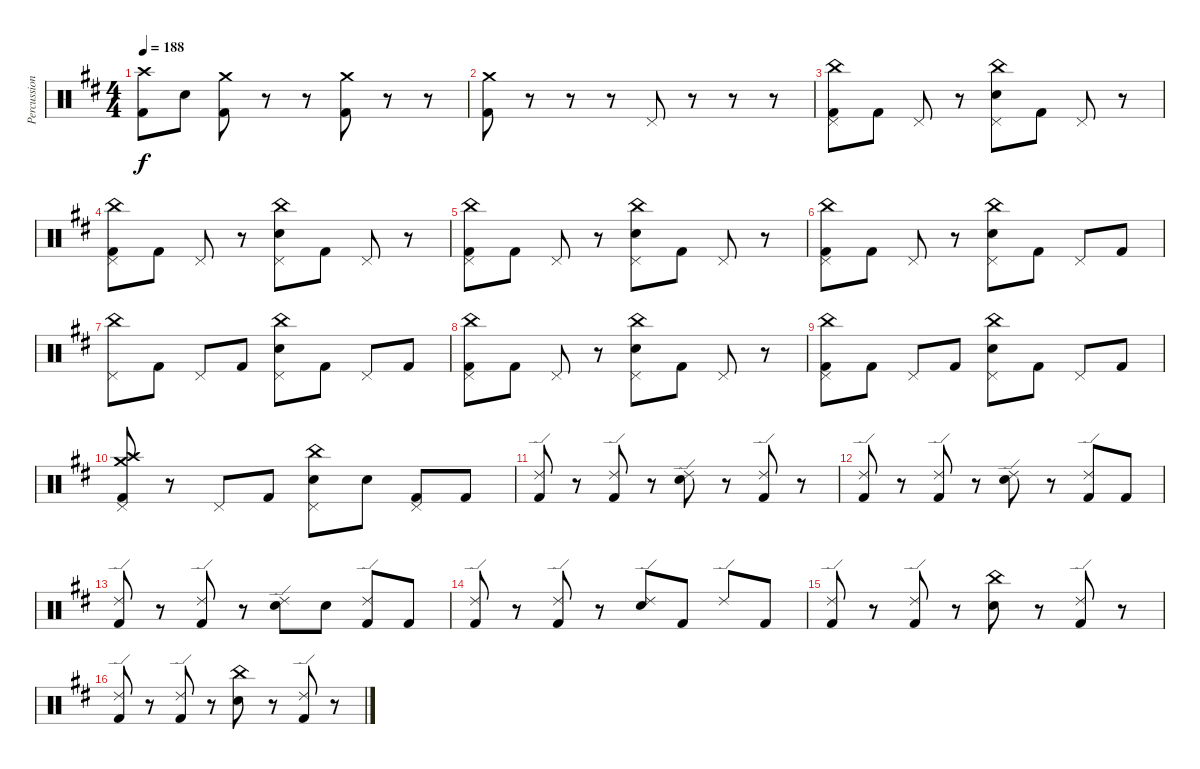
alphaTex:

\track ("Percussion" "Percussion") {instrument percussion}
\staff {score}
\articulation defaults
\ts (4 4)
\tempo 188
\clef neutral
\ks bminor
("Kick (hit) 2" "Crash high (hit)").8{dy f} "Electric Snare (hit)".8 ("Kick (hit) 2" "Crash medium (hit)").8 r.8 r.8 ("Kick (hit) 2" "Crash medium (hit)").8{volume 16} r.8{volume 0} r.8 |
("Kick (hit) 2" "Crash medium (hit)").8{volume 16} r.8{volume 0} r.8{volume 16} r.8 "Pedal Hi-Hat (hit)".8 r.8 r.8 r.8 |
("Kick (hit) 2" "China (hit)" "Pedal Hi-Hat (hit)").8{volume 16} "Kick (hit) 2".8 "Pedal Hi-Hat (hit)".8 r.8 ("China (hit)" "Electric Snare (hit)" "Pedal Hi-Hat (hit)").8 "Kick (hit) 2".8 "Pedal Hi-Hat (hit)".8 r.8 |
("Kick (hit) 2" "China (hit)" "Pedal Hi-Hat (hit)").8 "Kick (hit) 2".8 "Pedal Hi-Hat (hit)".8 r.8 ("China (hit)" "Electric Snare (hit)" "Pedal Hi-Hat (hit)").8 "Kick (hit) 2".8 "Pedal Hi-Hat (hit)".8 r.8 |
("Kick (hit) 2" "China (hit)" "Pedal Hi-Hat (hit)").8 "Kick (hit) 2".8 "Pedal Hi-Hat (hit)".8 r.8 ("China (hit)" "Electric Snare (hit)" "Pedal Hi-Hat (hit)").8 "Kick (hit) 2".8 "Pedal Hi-Hat (hit)".8 r.8 |
("Kick (hit) 2" "China (hit)" "Pedal Hi-Hat (hit)").8 "Kick (hit) 2".8 "Pedal Hi-Hat (hit)".8 r.8 ("China (hit)" "Electric Snare (hit)" "Pedal Hi-Hat (hit)").8 "Kick (hit) 2".8 "Pedal Hi-Hat (hit)".8 "Kick (hit) 2".8 |
("China (hit)" "Pedal Hi-Hat (hit)").8 "Kick (hit) 2".8 "Pedal Hi-Hat (hit)".8 "Kick (hit) 2".8 ("China (hit)" "Electric Snare (hit)" "Pedal Hi-Hat (hit)").8 "Kick (hit) 2".8 "Pedal Hi-Hat (hit)".8 "Kick (hit) 2".8 |
("Kick (hit) 2" "China (hit)" "Pedal Hi-Hat (hit)").8 "Kick (hit) 2".8 "Pedal Hi-Hat (hit)".8 r.8 ("China (hit)" "Electric Snare (hit)" "Pedal Hi-Hat (hit)").8 "Kick (hit) 2".8 "Pedal Hi-Hat (hit)".8 r.8 |
("Kick (hit) 2" "China (hit)" "Pedal Hi-Hat (hit)").8 "Kick (hit) 2".8 "Pedal Hi-Hat (hit)".8 "Kick (hit) 2".8 ("China (hit)" "Electric Snare (hit)" "Pedal Hi-Hat (hit)").8 "Kick (hit) 2".8 "Pedal Hi-Hat (hit)".8 "Kick (hit) 2".8 |
("Kick (hit) 2" "Crash medium (hit)" "Pedal Hi-Hat (hit)" "Crash high (hit)").8{volume 16} r.8 "Pedal Hi-Hat (hit)".8 "Kick (hit) 2".8 ("Electric Snare (hit)" "China (hit)" "Pedal Hi-Hat (hit)").8 "Electric Snare (hit)".8 ("Pedal Hi-Hat (hit)" "Kick (hit) 2").8 "Kick (hit) 2".8 |
("Kick (hit) 2" "Ride (edge) 2").8 r.8 ("Kick (hit) 2" "Ride (edge) 2").8 r.8 ("Electric Snare (hit)" "Ride (edge) 2").8 r.8 ("Kick (hit) 2" "Ride (edge) 2").8 r.8 |
("Kick (hit) 2" "Ride (edge) 2").8 r.8 ("Kick (hit) 2" "Ride (edge) 2").8 r.8 ("Electric Snare (hit)" "Ride (edge) 2").8 r.8 ("Kick (hit) 2" "Ride (edge) 2").8 "Kick (hit) 2".8 |
("Kick (hit) 2" "Ride (edge) 2").8 r.8 ("Kick (hit) 2" "Ride (edge) 2").8 r.8 ("Electric Snare (hit)" "Ride (edge) 2").8 "Electric Snare (hit)".8 ("Kick (hit) 2" "Ride (edge) 2").8 "Kick (hit) 2".8 |
("Kick (hit) 2" "Ride (edge) 2").8 r.8 ("Kick (hit) 2" "Ride (edge) 2").8 r.8 ("Electric Snare (hit)" "Ride (edge) 2").8 "Kick (hit) 2".8 "Ride (edge) 2".8 "Kick (hit) 2".8 |
("Kick (hit) 2" "Ride (edge) 2").8 r.8 ("Kick (hit) 2" "Ride (edge) 2").8 r.8 ("Electric Snare (hit)" "China (hit)").8 r.8 ("Kick (hit) 2" "Ride (edge) 2").8 r.8 |
("Kick (hit) 2" "Ride (edge) 2").8 r.8 ("Kick (hit) 2" "Ride (edge) 2").8 r.8 ("China (hit)" "Electric Snare (hit)").8 r.8 ("Kick (hit) 2" "Ride (edge) 2").8 r.8
